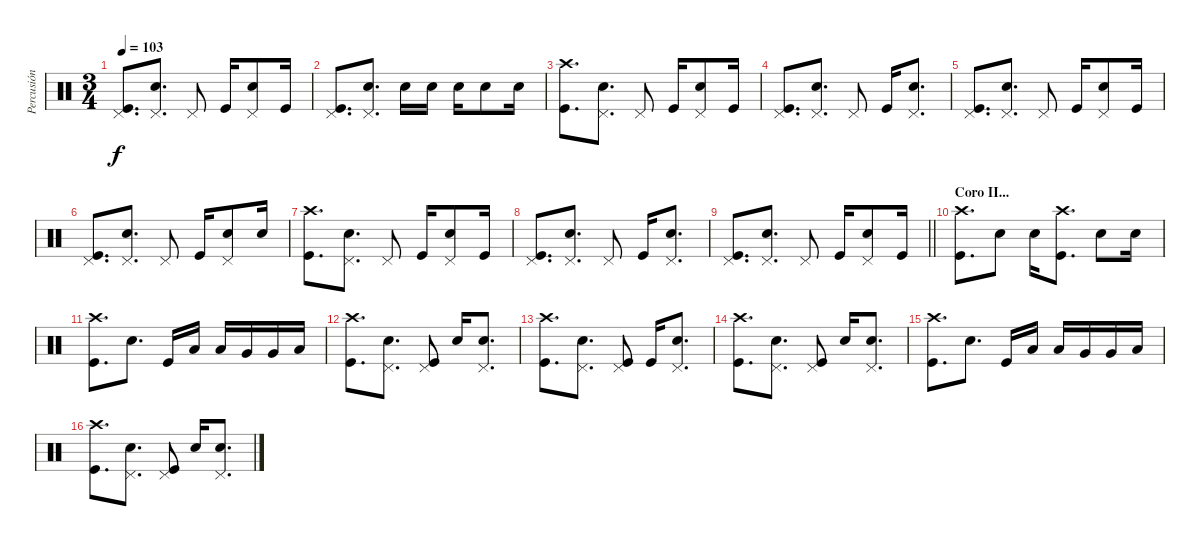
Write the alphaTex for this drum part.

\track ("Percusión" "Percusión") {instrument percussion}
\staff {score}
\articulation defaults
\ts (3 4)
\tempo 103
\clef neutral
\ks c
("Pedal Hi-Hat (hit)" "Kick (hit)").8{d dy f} ("Pedal Hi-Hat (hit)" "Snare (hit) 2").8{d} "Pedal Hi-Hat (hit)".8 "Kick (hit)".16 ("Pedal Hi-Hat (hit)" "Snare (hit) 2").8 "Kick (hit)".16 |
("Pedal Hi-Hat (hit)" "Kick (hit)").8{d} ("Pedal Hi-Hat (hit)" "Snare (hit) 2").8{d} "Snare (hit) 2".16 "Snare (hit) 2".16 "Snare (hit) 2".16 "Snare (hit) 2".8 "Snare (hit) 2".16 |
("Crash high (hit)" "Kick (hit)").8{d} ("Pedal Hi-Hat (hit)" "Snare (hit) 2").8{d} "Pedal Hi-Hat (hit)".8 "Kick (hit)".16 ("Pedal Hi-Hat (hit)" "Snare (hit) 2").8 "Kick (hit)".16 |
("Pedal Hi-Hat (hit)" "Kick (hit)").8{d} ("Pedal Hi-Hat (hit)" "Snare (hit) 2").8{d} "Pedal Hi-Hat (hit)".8 "Kick (hit)".16 ("Pedal Hi-Hat (hit)" "Snare (hit) 2").8{d} |
("Pedal Hi-Hat (hit)" "Kick (hit)").8{d} ("Pedal Hi-Hat (hit)" "Snare (hit) 2").8{d} "Pedal Hi-Hat (hit)".8 "Kick (hit)".16 ("Pedal Hi-Hat (hit)" "Snare (hit) 2").8 "Kick (hit)".16 |
("Pedal Hi-Hat (hit)" "Kick (hit)").8{d} ("Pedal Hi-Hat (hit)" "Snare (hit) 2").8{d} "Pedal Hi-Hat (hit)".8 "Kick (hit)".16 ("Pedal Hi-Hat (hit)" "Snare (hit) 2").8 "Snare (hit) 2".16 |
("Crash high (hit)" "Kick (hit)").8{d} ("Pedal Hi-Hat (hit)" "Snare (hit) 2").8{d} "Pedal Hi-Hat (hit)".8 "Kick (hit)".16 ("Pedal Hi-Hat (hit)" "Snare (hit) 2").8 "Kick (hit)".16 |
("Pedal Hi-Hat (hit)" "Kick (hit)").8{d} ("Pedal Hi-Hat (hit)" "Snare (hit) 2").8{d} "Pedal Hi-Hat (hit)".8 "Kick (hit)".16 ("Pedal Hi-Hat (hit)" "Snare (hit) 2").8{d} |
\barLineRight lightlight
("Pedal Hi-Hat (hit)" "Kick (hit)").8{d} ("Pedal Hi-Hat (hit)" "Snare (hit) 2").8{d} "Pedal Hi-Hat (hit)".8 "Kick (hit)".16 ("Pedal Hi-Hat (hit)" "Snare (hit) 2").8 "Kick (hit)".16 |
\section ("" "Coro II...")
("Crash high (hit)" "Kick (hit)").8{d} "Snare (hit) 2".8 "Snare (hit) 2".16 ("Crash high (hit)" "Kick (hit)").8{d} "Snare (hit) 2".8 "Snare (hit) 2".16 |
("Crash high (hit)" "Kick (hit)").8{d} "Snare (hit) 2".8{d} "Kick (hit)".16 "Low Tom (hit)".16 "Low Tom (hit)".16 "Very Low Tom (hit)".16 "Very Low Tom (hit)".16 "Low Floor Tom (hit)".16 |
("Crash high (hit)" "Kick (hit)").8{d} ("Pedal Hi-Hat (hit)" "Snare (hit) 2").8{d} ("Pedal Hi-Hat (hit)" "Kick (hit)").8 "Snare (hit) 2".16 ("Pedal Hi-Hat (hit)" "Snare (hit) 2").8{d} |
("Crash high (hit)" "Kick (hit)").8{d} ("Pedal Hi-Hat (hit)" "Snare (hit) 2").8{d} ("Pedal Hi-Hat (hit)" "Kick (hit)").8 "Kick (hit)".16 ("Pedal Hi-Hat (hit)" "Snare (hit) 2").8{d} |
("Crash high (hit)" "Kick (hit)").8{d} ("Pedal Hi-Hat (hit)" "Snare (hit) 2").8{d} ("Pedal Hi-Hat (hit)" "Kick (hit)").8 "Snare (hit) 2".16 ("Pedal Hi-Hat (hit)" "Snare (hit) 2").8{d} |
("Crash high (hit)" "Kick (hit)").8{d} "Snare (hit) 2".8{d} "Kick (hit)".16 "Low Tom (hit)".16 "Low Tom (hit)".16 "Very Low Tom (hit)".16 "Very Low Tom (hit)".16 "Low Floor Tom (hit)".16 |
("Crash high (hit)" "Kick (hit)").8{d} ("Pedal Hi-Hat (hit)" "Snare (hit) 2").8{d} ("Pedal Hi-Hat (hit)" "Kick (hit)").8 "Snare (hit) 2".16 ("Pedal Hi-Hat (hit)" "Snare (hit) 2").8{d}
